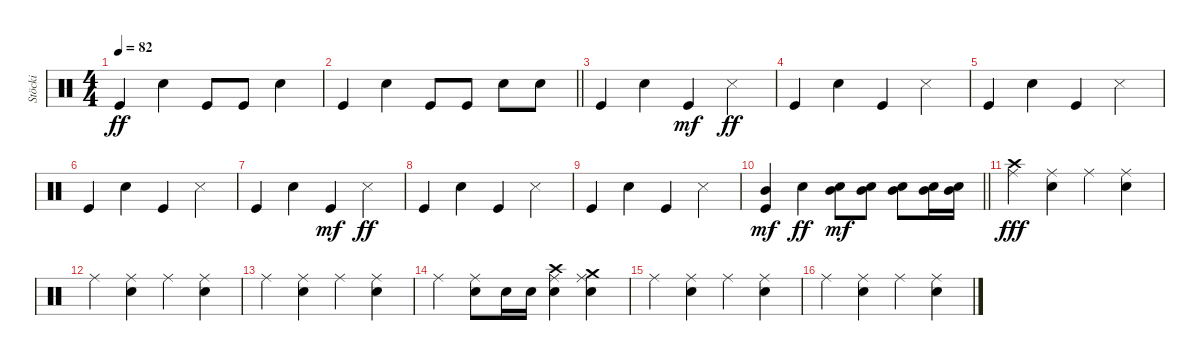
\track ("Stöcki" "Stöcki") {instrument percussion}
\staff {score}
\articulation defaults
\ts (4 4)
\tempo 82
\clef neutral
\ks c "Kick (hit)".4{dy ff} "Snare (hit) 2".4 "Kick (hit)".8 "Kick (hit)".8 "Snare (hit) 2".4
|
\barLineRight lightlight "Kick (hit)".4 "Snare (hit) 2".4 "Kick (hit)".8 "Kick (hit)".8 "Snare (hit) 2".8 "Snare (hit) 2".8
|
"Kick (hit)".4 "Snare (hit) 2".4 "Kick (hit)".4{dy mf} "Snare (side stick) 3".4{dy ff} |
"Kick (hit)".4 "Snare (hit) 2".4 "Kick (hit)".4 "Snare (side stick) 3".4 |
"Kick (hit)".4 "Snare (hit) 2".4 "Kick (hit)".4 "Snare (side stick) 3".4 |
"Kick (hit)".4 "Snare (hit) 2".4 "Kick (hit)".4 "Snare (side stick) 3".4 |
"Kick (hit)".4 "Snare (hit) 2".4 "Kick (hit)".4{dy mf} "Snare (side stick) 3".4{dy ff} |
"Kick (hit)".4 "Snare (hit) 2".4 "Kick (hit)".4 "Snare (side stick) 3".4 |
"Kick (hit)".4 "Snare (hit) 2".4 "Kick (hit)".4 "Snare (side stick) 3".4 |
\barLineRight lightlight
("Kick (hit)" "Mid Tom (hit)").4{dy mf} "Snare (hit) 2".4{dy ff} ("Snare (hit) 2" "Mid Tom (hit)").8{dy mf} ("Snare (hit) 2" "Mid Tom (hit)").8 ("Snare (hit) 2" "Mid Tom (hit)").8 ("Snare (hit) 2" "Mid Tom (hit)").16 ("Snare (hit) 2" "Mid Tom (hit)").16 |
("Ride (middle)" "Crash high (hit)").4{dy fff} ("Ride (middle)" "Snare (hit) 2").4 "Ride (middle)".4 ("Ride (middle)" "Snare (hit) 2").4 |
"Ride (middle)".4 ("Ride (middle)" "Snare (hit) 2").4 "Ride (middle)".4 ("Ride (middle)" "Snare (hit) 2").4 |
"Ride (middle)".4 ("Ride (middle)" "Snare (hit) 2").4 "Ride (middle)".4 ("Ride (middle)" "Snare (hit) 2").4 |
"Ride (middle)".4 ("Ride (middle)" "Snare (hit) 2").8 "Snare (hit) 2".16 "Snare (hit) 2".16 ("Ride (middle)" "Snare (hit) 2" "Crash high (hit)").4 ("Ride (middle)" "Snare (hit) 2" "Crash medium (hit)").4 |
"Ride (middle)".4 ("Ride (middle)" "Snare (hit) 2").4 "Ride (middle)".4 ("Ride (middle)" "Snare (hit) 2").4 |
"Ride (middle)".4 ("Ride (middle)" "Snare (hit) 2").4 "Ride (middle)".4 ("Ride (middle)" "Snare (hit) 2").4
